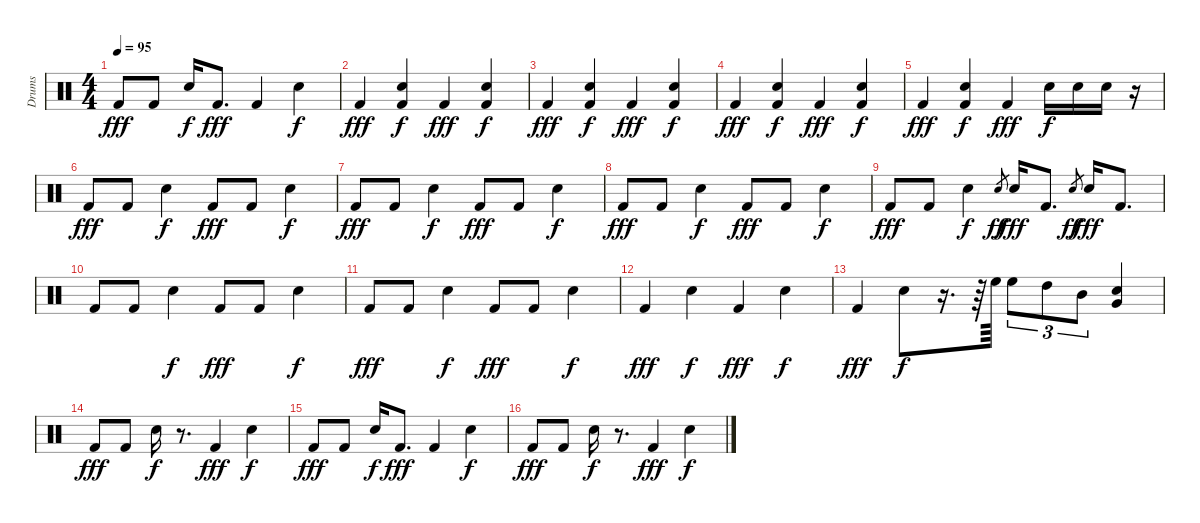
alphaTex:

\bracketExtendMode groupsimilarinstruments
\otherSystemsTrackNameOrientation horizontal
\track ("Drumkit" "Drums") {instrument percussion}
\staff {score}
\articulation defaults
\ts (4 4)
\tempo 95
\clef neutral
\ks c "Kick (hit) 2".8{dy fff} "Kick (hit) 2".8 "Snare (hit) 2".16{dy f} "Kick (hit) 2".8{d dy fff} "Kick (hit) 2".4 "Snare (hit) 2".4{dy f}
|
"Kick (hit) 2".4{dy fff} ("Snare (hit) 2" "Kick (hit) 2").4{dy f} "Kick (hit) 2".4{dy fff} ("Snare (hit) 2" "Kick (hit) 2").4{dy f} |
"Kick (hit) 2".4{dy fff} ("Snare (hit) 2" "Kick (hit) 2").4{dy f} "Kick (hit) 2".4{dy fff} ("Snare (hit) 2" "Kick (hit) 2").4{dy f} |
"Kick (hit) 2".4{dy fff} ("Snare (hit) 2" "Kick (hit) 2").4{dy f} "Kick (hit) 2".4{dy fff} ("Snare (hit) 2" "Kick (hit) 2").4{dy f} |
"Kick (hit) 2".4{dy fff} ("Snare (hit) 2" "Kick (hit) 2").4{dy f} "Kick (hit) 2".4{dy fff} "Snare (hit) 2".16{dy f} "Snare (hit) 2".16 "Snare (hit) 2".16 r.16 |
"Kick (hit) 2".8{dy fff} "Kick (hit) 2".8 "Snare (hit) 2".4{dy f} "Kick (hit) 2".8{dy fff} "Kick (hit) 2".8 "Snare (hit) 2".4{dy f} |
"Kick (hit) 2".8{dy fff} "Kick (hit) 2".8 "Snare (hit) 2".4{dy f} "Kick (hit) 2".8{dy fff} "Kick (hit) 2".8 "Snare (hit) 2".4{dy f} |
"Kick (hit) 2".8{dy fff} "Kick (hit) 2".8 "Snare (hit) 2".4{dy f} "Kick (hit) 2".8{dy fff} "Kick (hit) 2".8 "Snare (hit) 2".4{dy f} |
"Kick (hit) 2".8{dy fff} "Kick (hit) 2".8 "Snare (hit) 2".4{dy f} "Snare (hit) 2".8{gr dy ff} "Snare (hit) 2".16{dy fff} "Kick (hit) 2".8{d} "Snare (hit) 2".8{gr dy ff} "Snare (hit) 2".16{dy fff} "Kick (hit) 2".8{d} |
"Kick (hit) 2".8 "Kick (hit) 2".8 "Snare (hit) 2".4{dy f} "Kick (hit) 2".8{dy fff} "Kick (hit) 2".8 "Snare (hit) 2".4{dy f} |
"Kick (hit) 2".8{dy fff} "Kick (hit) 2".8 "Snare (hit) 2".4{dy f} "Kick (hit) 2".8{dy fff} "Kick (hit) 2".8 "Snare (hit) 2".4{dy f} |
"Kick (hit) 2".4{dy fff} "Snare (hit) 2".4{dy f} "Kick (hit) 2".4{dy fff} "Snare (hit) 2".4{dy f} |
"Kick (hit) 2".4{dy fff} "Snare (hit) 2".8{dy f} r.16{d} r.64 "High Floor Tom (hit)".64 "High Floor Tom (hit)".8{tu (3 2)} "High Tom (hit)".8{tu (3 2)} "Mid Tom (hit)".8{tu (3 2)} ("Very Low Tom (hit)" "Snare (hit) 2").4 |
"Kick (hit) 2".8{dy fff} "Kick (hit) 2".8 "Snare (hit) 2".16{dy f} r.8{d} "Kick (hit) 2".4{dy fff} "Snare (hit) 2".4{dy f} |
"Kick (hit) 2".8{dy fff} "Kick (hit) 2".8 "Snare (hit) 2".16{dy f} "Kick (hit) 2".8{d dy fff} "Kick (hit) 2".4 "Snare (hit) 2".4{dy f} |
"Kick (hit) 2".8{dy fff} "Kick (hit) 2".8 "Snare (hit) 2".16{dy f} r.8{d} "Kick (hit) 2".4{dy fff} "Snare (hit) 2".4{dy f}
